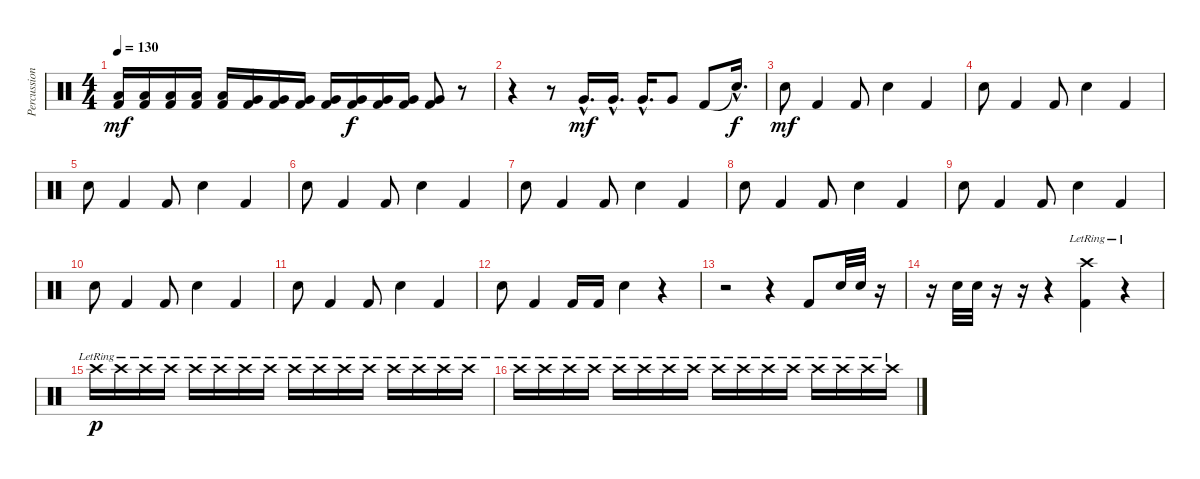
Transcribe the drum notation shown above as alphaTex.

\track ("Percussion" "Percussion") {instrument percussion}
\staff {score}
\articulation defaults
\ts (4 4)
\tempo 130
\clef neutral
\ks c
("Kick (hit) 2" "Low Tom (hit)").16{dy mf} ("Kick (hit) 2" "Low Tom (hit)").16 ("Kick (hit) 2" "Low Tom (hit)").16 ("Kick (hit) 2" "Low Tom (hit)").16 ("Kick (hit) 2" "Low Tom (hit)").16 ("Kick (hit) 2" "Very Low Tom (hit)").16 ("Kick (hit) 2" "Very Low Tom (hit)").16 ("Kick (hit) 2" "Very Low Tom (hit)").16 ("Kick (hit) 2" "Very Low Tom (hit)").16 ("Kick (hit) 2" "Very Low Tom (hit)").16{dy f} ("Kick (hit) 2" "Very Low Tom (hit)").16 ("Kick (hit) 2" "Very Low Tom (hit)").16 ("Kick (hit) 2" "Very Low Tom (hit)").8 r.8 |
r.4 r.8 "Very Low Tom (hit)"{hac}.16{d dy mf} "Very Low Tom (hit)"{hac}.16{d} "Very Low Tom (hit)"{hac}.16{d} "Very Low Tom (hit)".8 "Kick (hit) 2".8 "Snare (hit)"{hac t}.16{d dy f} |
"Electric Snare (hit)".8{dy mf} "Kick (hit) 2".4 "Kick (hit) 2".8 "Electric Snare (hit)".4 "Kick (hit) 2".4 |
"Electric Snare (hit)".8 "Kick (hit) 2".4 "Kick (hit) 2".8 "Electric Snare (hit)".4 "Kick (hit) 2".4 |
"Electric Snare (hit)".8 "Kick (hit) 2".4 "Kick (hit) 2".8 "Electric Snare (hit)".4 "Kick (hit) 2".4 |
"Electric Snare (hit)".8 "Kick (hit) 2".4 "Kick (hit) 2".8 "Electric Snare (hit)".4 "Kick (hit) 2".4 |
"Electric Snare (hit)".8 "Kick (hit) 2".4 "Kick (hit) 2".8 "Electric Snare (hit)".4 "Kick (hit) 2".4 |
"Electric Snare (hit)".8 "Kick (hit) 2".4 "Kick (hit) 2".8 "Electric Snare (hit)".4 "Kick (hit) 2".4 |
"Electric Snare (hit)".8 "Kick (hit) 2".4 "Kick (hit) 2".8 "Electric Snare (hit)".4 "Kick (hit) 2".4 |
"Electric Snare (hit)".8 "Kick (hit) 2".4 "Kick (hit) 2".8 "Electric Snare (hit)".4 "Kick (hit) 2".4 |
"Electric Snare (hit)".8 "Kick (hit) 2".4 "Kick (hit) 2".8 "Electric Snare (hit)".4 "Kick (hit) 2".4 |
"Electric Snare (hit)".8 "Kick (hit) 2".4 "Kick (hit) 2".16 "Kick (hit) 2".16 "Electric Snare (hit)".4 r.4 |
r.2 r.4 "Kick (hit) 2".8 "Electric Snare (hit)".32 "Electric Snare (hit)".32 r.16 |
r.16 "Electric Snare (hit)".32 "Electric Snare (hit)".32 r.16 r.16 r.4 ("Crash high (hit)"{lr} "Kick (hit) 2").4 r.4 |
"Crash high (hit)"{lr}.16{dy p} "Crash high (hit)"{lr}.16 "Crash high (hit)"{lr}.16 "Crash high (hit)"{lr}.16 "Crash high (hit)"{lr}.16 "Crash high (hit)"{lr}.16 "Crash high (hit)"{lr}.16 "Crash high (hit)"{lr}.16 "Crash high (hit)"{lr}.16 "Crash high (hit)"{lr}.16 "Crash high (hit)"{lr}.16 "Crash high (hit)"{lr}.16 "Crash high (hit)"{lr}.16 "Crash high (hit)"{lr}.16 "Crash high (hit)"{lr}.16 "Crash high (hit)"{lr}.16 |
"Crash high (hit)"{lr}.16 "Crash high (hit)"{lr}.16 "Crash high (hit)"{lr}.16 "Crash high (hit)"{lr}.16 "Crash high (hit)"{lr}.16 "Crash high (hit)"{lr}.16 "Crash high (hit)"{lr}.16 "Crash high (hit)"{lr}.16 "Crash high (hit)"{lr}.16 "Crash high (hit)"{lr}.16 "Crash high (hit)"{lr}.16 "Crash high (hit)"{lr}.16 "Crash high (hit)"{lr}.16 "Crash high (hit)"{lr}.16 "Crash high (hit)"{lr}.16 "Crash high (hit)"{lr}.16
